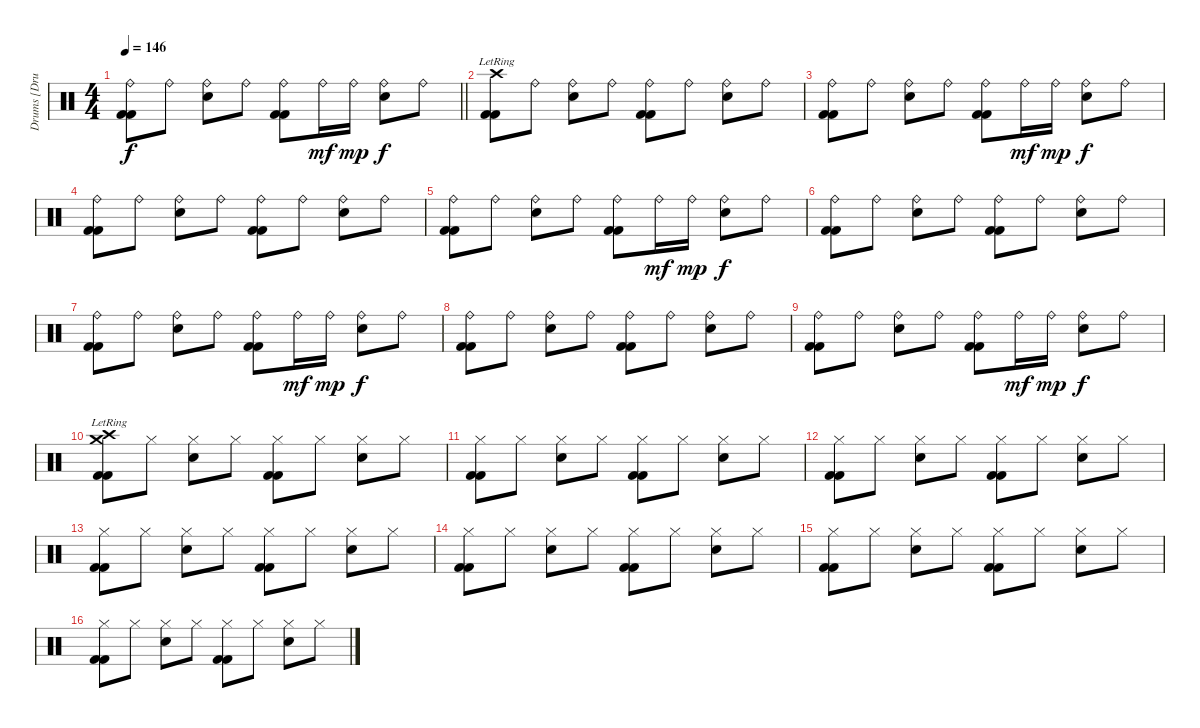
\track ("Drums [Drums]" "Drums [Dru") {instrument percussion}
\staff {score}
\articulation defaults
\ts (4 4)
\tempo 146
\clef neutral
\barLineRight lightlight
\ks c
("Ride (bell)" "Kick (hit) 2" "Kick (hit) 2").8{dy f} "Ride (bell)".8 ("Ride (bell)" "Snare (hit) 2").8 "Ride (bell)".8 ("Ride (bell)" "Kick (hit) 2" "Kick (hit) 2").8 "Ride (bell)".16{dy mf} "Ride (bell)".16{dy mp} ("Ride (bell)" "Snare (hit) 2").8{dy f} "Ride (bell)".8 |
("Crash high (hit)"{lr} "Kick (hit) 2" "Kick (hit) 2").8 "Ride (bell)".8 ("Ride (bell)" "Snare (hit) 2").8 "Ride (bell)".8 ("Ride (bell)" "Kick (hit) 2" "Kick (hit) 2").8 "Ride (bell)".8 ("Ride (bell)" "Snare (hit) 2").8 "Ride (bell)".8 |
("Ride (bell)" "Kick (hit) 2" "Kick (hit) 2").8 "Ride (bell)".8 ("Ride (bell)" "Snare (hit) 2").8 "Ride (bell)".8 ("Ride (bell)" "Kick (hit) 2" "Kick (hit) 2").8 "Ride (bell)".16{dy mf} "Ride (bell)".16{dy mp} ("Ride (bell)" "Snare (hit) 2").8{dy f} "Ride (bell)".8 |
("Ride (bell)" "Kick (hit) 2" "Kick (hit) 2").8 "Ride (bell)".8 ("Ride (bell)" "Snare (hit) 2").8 "Ride (bell)".8 ("Ride (bell)" "Kick (hit) 2" "Kick (hit) 2").8 "Ride (bell)".8 ("Ride (bell)" "Snare (hit) 2").8 "Ride (bell)".8 |
("Ride (bell)" "Kick (hit) 2" "Kick (hit) 2").8 "Ride (bell)".8 ("Ride (bell)" "Snare (hit) 2").8 "Ride (bell)".8 ("Ride (bell)" "Kick (hit) 2" "Kick (hit) 2").8 "Ride (bell)".16{dy mf} "Ride (bell)".16{dy mp} ("Ride (bell)" "Snare (hit) 2").8{dy f} "Ride (bell)".8 |
("Ride (bell)" "Kick (hit) 2" "Kick (hit) 2").8 "Ride (bell)".8 ("Ride (bell)" "Snare (hit) 2").8 "Ride (bell)".8 ("Ride (bell)" "Kick (hit) 2" "Kick (hit) 2").8 "Ride (bell)".8 ("Ride (bell)" "Snare (hit) 2").8 "Ride (bell)".8 |
("Ride (bell)" "Kick (hit) 2" "Kick (hit) 2").8 "Ride (bell)".8 ("Ride (bell)" "Snare (hit) 2").8 "Ride (bell)".8 ("Ride (bell)" "Kick (hit) 2" "Kick (hit) 2").8 "Ride (bell)".16{dy mf} "Ride (bell)".16{dy mp} ("Ride (bell)" "Snare (hit) 2").8{dy f} "Ride (bell)".8 |
("Ride (bell)" "Kick (hit) 2" "Kick (hit) 2").8 "Ride (bell)".8 ("Ride (bell)" "Snare (hit) 2").8 "Ride (bell)".8 ("Ride (bell)" "Kick (hit) 2" "Kick (hit) 2").8 "Ride (bell)".8 ("Ride (bell)" "Snare (hit) 2").8 "Ride (bell)".8 |
("Ride (bell)" "Kick (hit) 2" "Kick (hit) 2").8 "Ride (bell)".8 ("Ride (bell)" "Snare (hit) 2").8 "Ride (bell)".8 ("Ride (bell)" "Kick (hit) 2" "Kick (hit) 2").8 "Ride (bell)".16{dy mf} "Ride (bell)".16{dy mp} ("Ride (bell)" "Snare (hit) 2").8{dy f} "Ride (bell)".8 |
("Crash high (hit)"{lr} "Crash medium (hit)"{lr} "Kick (hit) 2" "Kick (hit) 2").8 "Hi-Hat (closed)".8 ("Hi-Hat (closed)" "Snare (hit) 2").8 "Hi-Hat (closed)".8 ("Hi-Hat (closed)" "Kick (hit) 2" "Kick (hit) 2").8 "Hi-Hat (closed)".8 ("Hi-Hat (closed)" "Snare (hit) 2").8 "Hi-Hat (closed)".8 |
("Hi-Hat (closed)" "Kick (hit) 2" "Kick (hit) 2").8 "Hi-Hat (closed)".8 ("Hi-Hat (closed)" "Snare (hit) 2").8 "Hi-Hat (closed)".8 ("Hi-Hat (closed)" "Kick (hit) 2" "Kick (hit) 2").8 "Hi-Hat (closed)".8 ("Hi-Hat (closed)" "Snare (hit) 2").8 "Hi-Hat (closed)".8 |
("Hi-Hat (closed)" "Kick (hit) 2" "Kick (hit) 2").8 "Hi-Hat (closed)".8 ("Hi-Hat (closed)" "Snare (hit) 2").8 "Hi-Hat (closed)".8 ("Hi-Hat (closed)" "Kick (hit) 2" "Kick (hit) 2").8 "Hi-Hat (closed)".8 ("Hi-Hat (closed)" "Snare (hit) 2").8 "Hi-Hat (closed)".8 |
("Hi-Hat (closed)" "Kick (hit) 2" "Kick (hit) 2").8 "Hi-Hat (closed)".8 ("Hi-Hat (closed)" "Snare (hit) 2").8 "Hi-Hat (closed)".8 ("Hi-Hat (closed)" "Kick (hit) 2" "Kick (hit) 2").8 "Hi-Hat (closed)".8 ("Hi-Hat (closed)" "Snare (hit) 2").8 "Hi-Hat (closed)".8 |
("Hi-Hat (closed)" "Kick (hit) 2" "Kick (hit) 2").8 "Hi-Hat (closed)".8 ("Hi-Hat (closed)" "Snare (hit) 2").8 "Hi-Hat (closed)".8 ("Hi-Hat (closed)" "Kick (hit) 2" "Kick (hit) 2").8 "Hi-Hat (closed)".8 ("Hi-Hat (closed)" "Snare (hit) 2").8 "Hi-Hat (closed)".8 |
("Hi-Hat (closed)" "Kick (hit) 2" "Kick (hit) 2").8 "Hi-Hat (closed)".8 ("Hi-Hat (closed)" "Snare (hit) 2").8 "Hi-Hat (closed)".8 ("Hi-Hat (closed)" "Kick (hit) 2" "Kick (hit) 2").8 "Hi-Hat (closed)".8 ("Hi-Hat (closed)" "Snare (hit) 2").8 "Hi-Hat (closed)".8 |
("Hi-Hat (closed)" "Kick (hit) 2" "Kick (hit) 2").8 "Hi-Hat (closed)".8 ("Hi-Hat (closed)" "Snare (hit) 2").8 "Hi-Hat (closed)".8 ("Hi-Hat (closed)" "Kick (hit) 2" "Kick (hit) 2").8 "Hi-Hat (closed)".8 ("Hi-Hat (closed)" "Snare (hit) 2").8 "Hi-Hat (closed)".8
